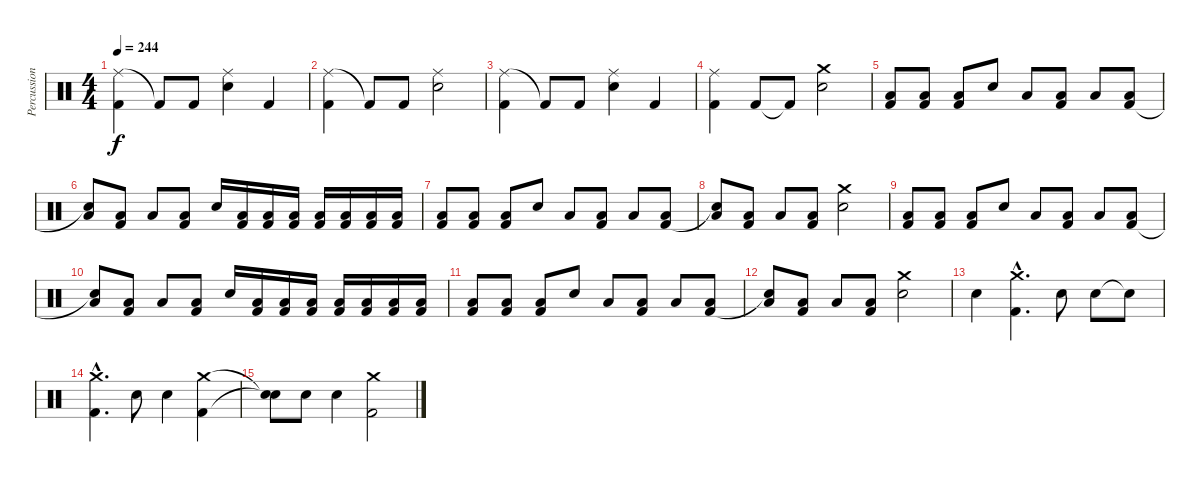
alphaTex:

\track ("Percussions" "Percussion") {instrument percussion}
\staff {score}
\articulation defaults
\ts (4 4)
\tempo 244
\clef neutral
\ks c
("Ride (middle)" "Kick (hit) 2").4{dy f} "Kick (hit) 2"{t}.8 "Kick (hit) 2".8 ("Ride (middle)" "Electric Snare (hit)").4 "Kick (hit) 2".4 |
("Ride (middle)" "Kick (hit) 2").4 "Kick (hit) 2"{t}.8 "Kick (hit) 2".8 ("Ride (middle)" "Electric Snare (hit)").2 |
("Ride (middle)" "Kick (hit) 2").4 "Kick (hit) 2"{t}.8 "Kick (hit) 2".8 ("Ride (middle)" "Electric Snare (hit)").4 "Kick (hit) 2".4 |
("Ride (middle)" "Kick (hit) 2").4 "Kick (hit) 2".8 "Kick (hit) 2"{t}.8 ("Crash medium (hit)" "Electric Snare (hit)").2 |
("Low Floor Tom (hit)" "Kick (hit) 2").8 ("Low Floor Tom (hit)" "Kick (hit) 2").8 ("Low Floor Tom (hit)" "Kick (hit) 2").8 "Electric Snare (hit)".8 "Low Floor Tom (hit)".8 ("Low Floor Tom (hit)" "Kick (hit) 2").8 "Low Floor Tom (hit)".8 ("Low Floor Tom (hit)" "Kick (hit) 2").8 |
("Low Floor Tom (hit)" "Snare (hit)"{t}).8 ("Low Floor Tom (hit)" "Kick (hit) 2").8 "Low Floor Tom (hit)".8 ("Low Floor Tom (hit)" "Kick (hit) 2").8 "Electric Snare (hit)".16 ("Low Floor Tom (hit)" "Kick (hit) 2").16 ("Low Floor Tom (hit)" "Kick (hit) 2").16 ("Low Floor Tom (hit)" "Kick (hit) 2").16 ("Low Floor Tom (hit)" "Kick (hit) 2").16 ("Low Floor Tom (hit)" "Kick (hit) 2").16 ("Low Floor Tom (hit)" "Kick (hit) 2").16 ("Low Floor Tom (hit)" "Kick (hit) 2").16 |
("Low Floor Tom (hit)" "Kick (hit) 2").8 ("Low Floor Tom (hit)" "Kick (hit) 2").8 ("Low Floor Tom (hit)" "Kick (hit) 2").8 "Electric Snare (hit)".8 "Low Floor Tom (hit)".8 ("Low Floor Tom (hit)" "Kick (hit) 2").8 "Low Floor Tom (hit)".8 ("Low Floor Tom (hit)" "Kick (hit) 2").8 |
("Low Floor Tom (hit)" "Snare (hit)"{t}).8 ("Low Floor Tom (hit)" "Kick (hit) 2").8 "Low Floor Tom (hit)".8 ("Low Floor Tom (hit)" "Kick (hit) 2").8 ("Crash medium (hit)" "Electric Snare (hit)").2 |
("Low Floor Tom (hit)" "Kick (hit) 2").8 ("Low Floor Tom (hit)" "Kick (hit) 2").8 ("Low Floor Tom (hit)" "Kick (hit) 2").8 "Electric Snare (hit)".8 "Low Floor Tom (hit)".8 ("Low Floor Tom (hit)" "Kick (hit) 2").8 "Low Floor Tom (hit)".8 ("Low Floor Tom (hit)" "Kick (hit) 2").8 |
("Low Floor Tom (hit)" "Snare (hit)"{t}).8 ("Low Floor Tom (hit)" "Kick (hit) 2").8 "Low Floor Tom (hit)".8 ("Low Floor Tom (hit)" "Kick (hit) 2").8 "Electric Snare (hit)".16 ("Low Floor Tom (hit)" "Kick (hit) 2").16 ("Low Floor Tom (hit)" "Kick (hit) 2").16 ("Low Floor Tom (hit)" "Kick (hit) 2").16 ("Low Floor Tom (hit)" "Kick (hit) 2").16 ("Low Floor Tom (hit)" "Kick (hit) 2").16 ("Low Floor Tom (hit)" "Kick (hit) 2").16 ("Low Floor Tom (hit)" "Kick (hit) 2").16 |
("Low Floor Tom (hit)" "Kick (hit) 2").8 ("Low Floor Tom (hit)" "Kick (hit) 2").8 ("Low Floor Tom (hit)" "Kick (hit) 2").8 "Electric Snare (hit)".8 "Low Floor Tom (hit)".8 ("Low Floor Tom (hit)" "Kick (hit) 2").8 "Low Floor Tom (hit)".8 ("Low Floor Tom (hit)" "Kick (hit) 2").8 |
("Low Floor Tom (hit)" "Snare (hit)"{t}).8 ("Low Floor Tom (hit)" "Kick (hit) 2").8 "Low Floor Tom (hit)".8 ("Low Floor Tom (hit)" "Kick (hit) 2").8 ("Crash medium (hit)" "Electric Snare (hit)").2 |
"Electric Snare (hit)".4 ("Crash medium (hit)"{hac} "Kick (hit) 2"{hac}).4{d} "Electric Snare (hit)".8 "Electric Snare (hit)".8 "Snare (hit)"{t}.8 |
("Crash medium (hit)"{hac} "Kick (hit) 2"{hac}).4{d} "Electric Snare (hit)".8 "Electric Snare (hit)".4 ("Crash medium (hit)" "Kick (hit) 2").4 |
("Snare (hit)"{t} "Snare (hit)"{t}).8 "Electric Snare (hit)".8 "Electric Snare (hit)".4 ("Crash medium (hit)" "Kick (hit) 2").2
